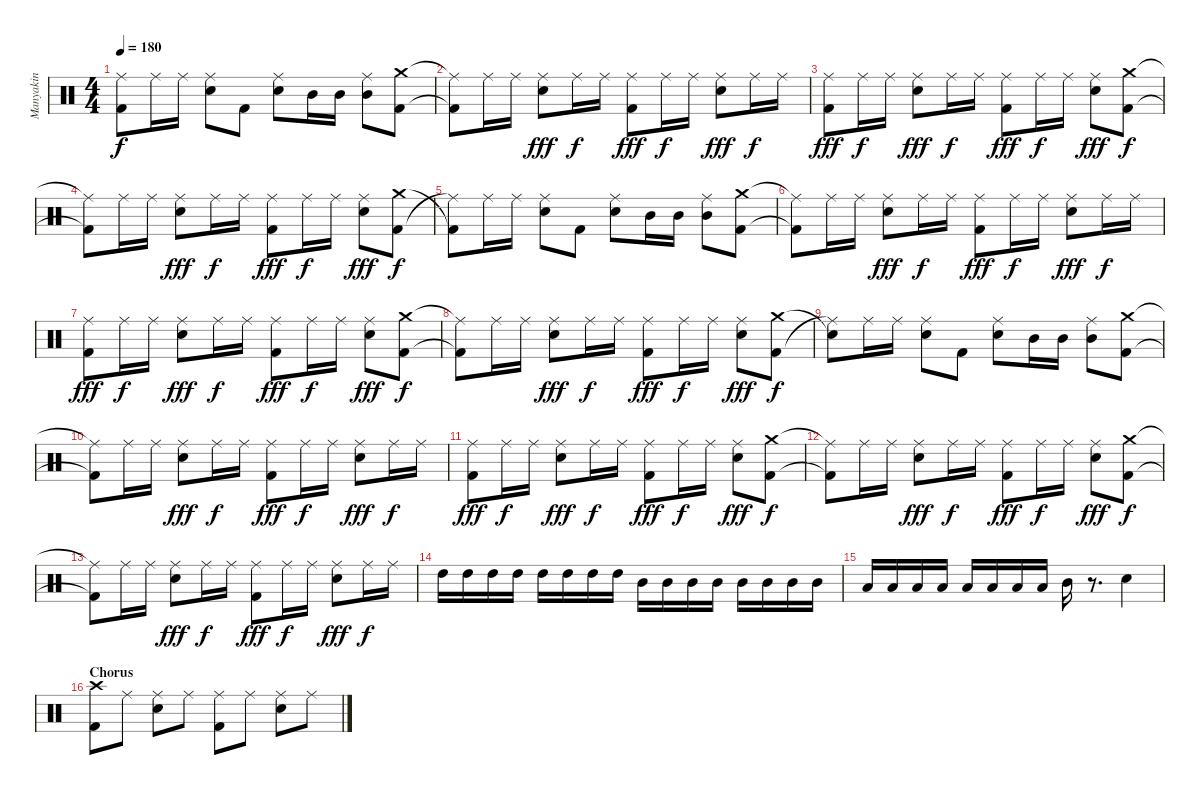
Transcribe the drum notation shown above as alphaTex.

\track ("Manyakin" "Manyakin") {instrument percussion}
\staff {score}
\articulation defaults
\ts (4 4)
\tempo 180
\clef neutral
\ks c
("Ride (middle)"{t} "Kick (hit) 2"{t}).8{dy f} "Ride (middle)".16 "Ride (middle)".16 ("Snare (hit) 2" "Ride (middle)").8 "Kick (hit) 2".8 ("Snare (hit) 2" "Ride (middle)").8 "Mid Tom (hit)".16 "Mid Tom (hit)".16 ("Mid Tom (hit)" "Ride (middle)").8 ("Kick (hit) 2" "Crash medium (hit)").8 |
("Kick (hit) 2"{t} "Ride (middle)"{t}).8 "Ride (middle)".16 "Ride (middle)".16 ("Snare (hit) 2" "Ride (middle)").8{dy fff} "Ride (middle)".16{dy f} "Ride (middle)".16 ("Kick (hit) 2" "Ride (middle)").8{dy fff} "Ride (middle)".16{dy f} "Ride (middle)".16 ("Snare (hit) 2" "Ride (middle)").8{dy fff} "Ride (middle)".16{dy f} "Ride (middle)".16 |
("Kick (hit) 2" "Ride (middle)").8{dy fff} "Ride (middle)".16{dy f} "Ride (middle)".16 ("Snare (hit) 2" "Ride (middle)").8{dy fff} "Ride (middle)".16{dy f} "Ride (middle)".16 ("Kick (hit) 2" "Ride (middle)").8{dy fff} "Ride (middle)".16{dy f} "Ride (middle)".16 ("Snare (hit) 2" "Ride (middle)").8{dy fff} ("Kick (hit) 2" "Crash medium (hit)").8{dy f} |
("Kick (hit) 2"{t} "Ride (middle)"{t}).8 "Ride (middle)".16 "Ride (middle)".16 ("Snare (hit) 2" "Ride (middle)").8{dy fff} "Ride (middle)".16{dy f} "Ride (middle)".16 ("Kick (hit) 2" "Ride (middle)").8{dy fff} "Ride (middle)".16{dy f} "Ride (middle)".16 ("Snare (hit) 2" "Ride (middle)").8{dy fff} ("Kick (hit) 2" "Crash medium (hit)").8{dy f} |
("Ride (middle)"{t} "Kick (hit) 2"{t}).8 "Ride (middle)".16 "Ride (middle)".16 ("Snare (hit) 2" "Ride (middle)").8 "Kick (hit) 2".8 ("Snare (hit) 2" "Ride (middle)").8 "Mid Tom (hit)".16 "Mid Tom (hit)".16 ("Mid Tom (hit)" "Ride (middle)").8 ("Kick (hit) 2" "Crash medium (hit)").8 |
("Kick (hit) 2"{t} "Ride (middle)"{t}).8 "Ride (middle)".16 "Ride (middle)".16 ("Snare (hit) 2" "Ride (middle)").8{dy fff} "Ride (middle)".16{dy f} "Ride (middle)".16 ("Kick (hit) 2" "Ride (middle)").8{dy fff} "Ride (middle)".16{dy f} "Ride (middle)".16 ("Snare (hit) 2" "Ride (middle)").8{dy fff} "Ride (middle)".16{dy f} "Ride (middle)".16 |
("Kick (hit) 2" "Ride (middle)").8{dy fff} "Ride (middle)".16{dy f} "Ride (middle)".16 ("Snare (hit) 2" "Ride (middle)").8{dy fff} "Ride (middle)".16{dy f} "Ride (middle)".16 ("Kick (hit) 2" "Ride (middle)").8{dy fff} "Ride (middle)".16{dy f} "Ride (middle)".16 ("Snare (hit) 2" "Ride (middle)").8{dy fff} ("Kick (hit) 2" "Crash medium (hit)").8{dy f} |
("Kick (hit) 2"{t} "Ride (middle)"{t}).8 "Ride (middle)".16 "Ride (middle)".16 ("Snare (hit) 2" "Ride (middle)").8{dy fff} "Ride (middle)".16{dy f} "Ride (middle)".16 ("Kick (hit) 2" "Ride (middle)").8{dy fff} "Ride (middle)".16{dy f} "Ride (middle)".16 ("Snare (hit) 2" "Ride (middle)").8{dy fff} ("Kick (hit) 2" "Crash medium (hit)").8{dy f} |
("Ride (middle)"{t} "Snare (hit)"{t}).8 "Ride (middle)".16 "Ride (middle)".16 ("Snare (hit) 2" "Ride (middle)").8 "Kick (hit) 2".8 ("Snare (hit) 2" "Ride (middle)").8 "Mid Tom (hit)".16 "Mid Tom (hit)".16 ("Mid Tom (hit)" "Ride (middle)").8 ("Kick (hit) 2" "Crash medium (hit)").8 |
("Kick (hit) 2"{t} "Ride (middle)"{t}).8 "Ride (middle)".16 "Ride (middle)".16 ("Snare (hit) 2" "Ride (middle)").8{dy fff} "Ride (middle)".16{dy f} "Ride (middle)".16 ("Kick (hit) 2" "Ride (middle)").8{dy fff} "Ride (middle)".16{dy f} "Ride (middle)".16 ("Snare (hit) 2" "Ride (middle)").8{dy fff} "Ride (middle)".16{dy f} "Ride (middle)".16 |
("Kick (hit) 2" "Ride (middle)").8{dy fff} "Ride (middle)".16{dy f} "Ride (middle)".16 ("Snare (hit) 2" "Ride (middle)").8{dy fff} "Ride (middle)".16{dy f} "Ride (middle)".16 ("Kick (hit) 2" "Ride (middle)").8{dy fff} "Ride (middle)".16{dy f} "Ride (middle)".16 ("Snare (hit) 2" "Ride (middle)").8{dy fff} ("Kick (hit) 2" "Crash medium (hit)").8{dy f} |
("Kick (hit) 2"{t} "Ride (middle)"{t}).8 "Ride (middle)".16 "Ride (middle)".16 ("Snare (hit) 2" "Ride (middle)").8{dy fff} "Ride (middle)".16{dy f} "Ride (middle)".16 ("Kick (hit) 2" "Ride (middle)").8{dy fff} "Ride (middle)".16{dy f} "Ride (middle)".16 ("Snare (hit) 2" "Ride (middle)").8{dy fff} ("Kick (hit) 2" "Crash medium (hit)").8{dy f} |
("Kick (hit) 2"{t} "Ride (middle)"{t}).8 "Ride (middle)".16 "Ride (middle)".16 ("Snare (hit) 2" "Ride (middle)").8{dy fff} "Ride (middle)".16{dy f} "Ride (middle)".16 ("Kick (hit) 2" "Ride (middle)").8{dy fff} "Ride (middle)".16{dy f} "Ride (middle)".16 ("Snare (hit) 2" "Ride (middle)").8{dy fff} "Ride (middle)".16{dy f} "Ride (middle)".16 |
"High Tom (hit)".16 "High Tom (hit)".16 "High Tom (hit)".16 "High Tom (hit)".16 "High Tom (hit)".16 "High Tom (hit)".16 "High Tom (hit)".16 "High Tom (hit)".16 "Mid Tom (hit)".16 "Mid Tom (hit)".16 "Mid Tom (hit)".16 "Mid Tom (hit)".16 "Mid Tom (hit)".16 "Mid Tom (hit)".16 "Mid Tom (hit)".16 "Mid Tom (hit)".16 |
"Low Tom (hit)".16 "Low Tom (hit)".16 "Low Tom (hit)".16 "Low Tom (hit)".16 "Low Tom (hit)".16 "Low Tom (hit)".16 "Low Tom (hit)".16 "Low Tom (hit)".16 "Mid Tom (hit)".16 r.8{d} "Snare (hit) 2".4 |
\section ("" "Chorus")
("Kick (hit) 2" "Crash high (hit)").8 "Ride (middle)".8 ("Snare (hit) 2" "Ride (middle)").8 "Ride (middle)".8 ("Kick (hit) 2" "Ride (middle)").8 "Ride (middle)".8 ("Snare (hit) 2" "Ride (middle)").8 "Ride (middle)".8
